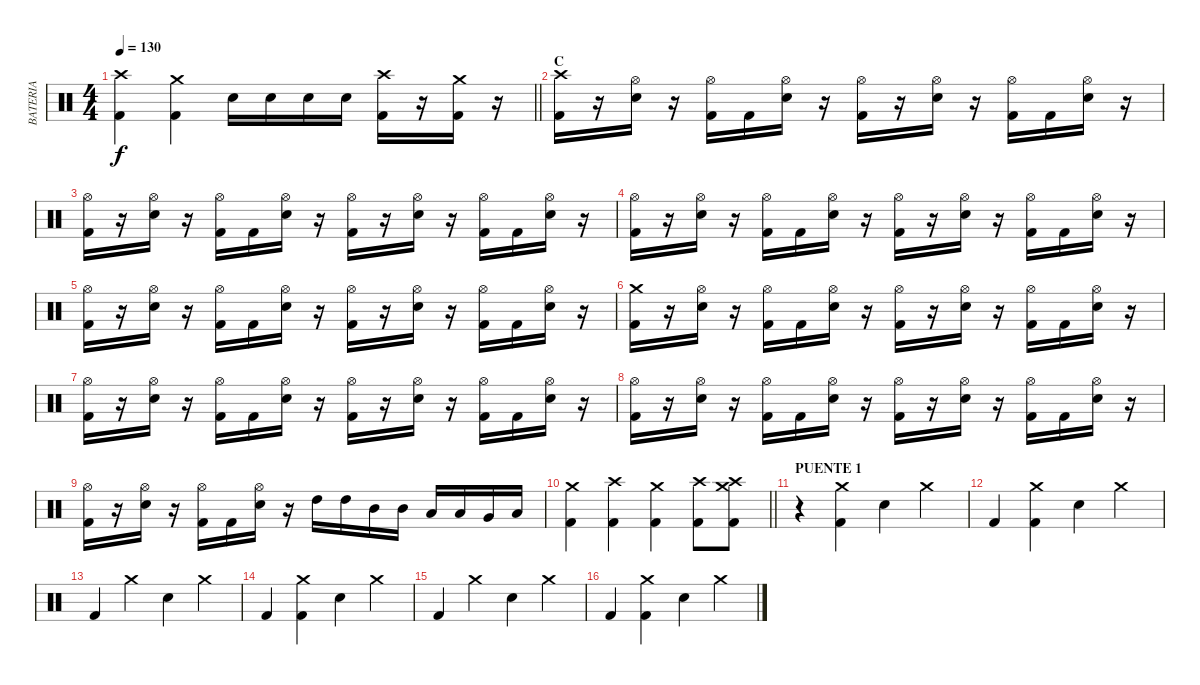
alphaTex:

\track ("BATERIA" "BATERIA") {instrument percussion}
\staff {score}
\articulation defaults
\ts (4 4)
\tempo 130
\clef neutral
\barLineRight lightlight
\ks c
("Kick (hit) 2" "Crash high (hit)").4{dy f} ("Kick (hit) 2" "Crash medium (hit)").4 "Electric Snare (hit)".16 "Electric Snare (hit)".16 "Electric Snare (hit)".16 "Electric Snare (hit)".16 ("Kick (hit) 2" "Crash high (hit)").16 r.16 ("Kick (hit) 2" "Crash medium (hit)").16 r.16 |
\section ("" "C")
("Kick (hit) 2" "Crash high (hit)").16 r.16 ("Electric Snare (hit)" "Hi-Hat (open)").16 r.16 ("Kick (hit) 2" "Hi-Hat (open)").16 "Kick (hit) 2".16 ("Electric Snare (hit)" "Hi-Hat (open)").16 r.16 ("Kick (hit) 2" "Hi-Hat (open)").16 r.16 ("Electric Snare (hit)" "Hi-Hat (open)").16 r.16 ("Kick (hit) 2" "Hi-Hat (open)").16 "Kick (hit) 2".16 ("Electric Snare (hit)" "Hi-Hat (open)").16 r.16 |
("Kick (hit) 2" "Hi-Hat (open)").16 r.16 ("Electric Snare (hit)" "Hi-Hat (open)").16 r.16 ("Kick (hit) 2" "Hi-Hat (open)").16 "Kick (hit) 2".16 ("Electric Snare (hit)" "Hi-Hat (open)").16 r.16 ("Kick (hit) 2" "Hi-Hat (open)").16 r.16 ("Electric Snare (hit)" "Hi-Hat (open)").16 r.16 ("Kick (hit) 2" "Hi-Hat (open)").16 "Kick (hit) 2".16 ("Electric Snare (hit)" "Hi-Hat (open)").16 r.16 |
("Kick (hit) 2" "Hi-Hat (open)").16 r.16 ("Electric Snare (hit)" "Hi-Hat (open)").16 r.16 ("Kick (hit) 2" "Hi-Hat (open)").16 "Kick (hit) 2".16 ("Electric Snare (hit)" "Hi-Hat (open)").16 r.16 ("Kick (hit) 2" "Hi-Hat (open)").16 r.16 ("Electric Snare (hit)" "Hi-Hat (open)").16 r.16 ("Kick (hit) 2" "Hi-Hat (open)").16 "Kick (hit) 2".16 ("Electric Snare (hit)" "Hi-Hat (open)").16 r.16 |
("Kick (hit) 2" "Hi-Hat (open)").16 r.16 ("Electric Snare (hit)" "Hi-Hat (open)").16 r.16 ("Kick (hit) 2" "Hi-Hat (open)").16 "Kick (hit) 2".16 ("Electric Snare (hit)" "Hi-Hat (open)").16 r.16 ("Kick (hit) 2" "Hi-Hat (open)").16 r.16 ("Electric Snare (hit)" "Hi-Hat (open)").16 r.16 ("Kick (hit) 2" "Hi-Hat (open)").16 "Kick (hit) 2".16 ("Electric Snare (hit)" "Hi-Hat (open)").16 r.16 |
("Kick (hit) 2" "Crash medium (hit)").16 r.16 ("Electric Snare (hit)" "Hi-Hat (open)").16 r.16 ("Kick (hit) 2" "Hi-Hat (open)").16 "Kick (hit) 2".16 ("Electric Snare (hit)" "Hi-Hat (open)").16 r.16 ("Kick (hit) 2" "Hi-Hat (open)").16 r.16 ("Electric Snare (hit)" "Hi-Hat (open)").16 r.16 ("Kick (hit) 2" "Hi-Hat (open)").16 "Kick (hit) 2".16 ("Electric Snare (hit)" "Hi-Hat (open)").16 r.16 |
("Kick (hit) 2" "Hi-Hat (open)").16 r.16 ("Electric Snare (hit)" "Hi-Hat (open)").16 r.16 ("Kick (hit) 2" "Hi-Hat (open)").16 "Kick (hit) 2".16 ("Electric Snare (hit)" "Hi-Hat (open)").16 r.16 ("Kick (hit) 2" "Hi-Hat (open)").16 r.16 ("Electric Snare (hit)" "Hi-Hat (open)").16 r.16 ("Kick (hit) 2" "Hi-Hat (open)").16 "Kick (hit) 2".16 ("Electric Snare (hit)" "Hi-Hat (open)").16 r.16 |
("Kick (hit) 2" "Hi-Hat (open)").16 r.16 ("Electric Snare (hit)" "Hi-Hat (open)").16 r.16 ("Kick (hit) 2" "Hi-Hat (open)").16 "Kick (hit) 2".16 ("Electric Snare (hit)" "Hi-Hat (open)").16 r.16 ("Kick (hit) 2" "Hi-Hat (open)").16 r.16 ("Electric Snare (hit)" "Hi-Hat (open)").16 r.16 ("Kick (hit) 2" "Hi-Hat (open)").16 "Kick (hit) 2".16 ("Electric Snare (hit)" "Hi-Hat (open)").16 r.16 |
("Kick (hit) 2" "Hi-Hat (open)").16 r.16 ("Electric Snare (hit)" "Hi-Hat (open)").16 r.16 ("Kick (hit) 2" "Hi-Hat (open)").16 "Kick (hit) 2".16 ("Electric Snare (hit)" "Hi-Hat (open)").16 r.16 "High Tom (hit)".16 "High Tom (hit)".16 "Mid Tom (hit)".16 "Mid Tom (hit)".16 "Low Tom (hit)".16 "Low Tom (hit)".16 "Very Low Tom (hit)".16 "Low Floor Tom (hit)".16 |
\barLineRight lightlight
("Kick (hit) 2" "Crash medium (hit)").4 ("Kick (hit) 2" "Crash high (hit)").4 ("Kick (hit) 2" "Crash medium (hit)").4 ("Kick (hit) 2" "Crash high (hit)").8 ("Kick (hit) 2" "Crash medium (hit)" "Crash high (hit)").8 |
\section ("" "PUENTE 1")
r.4 ("Kick (hit) 2" "Crash medium (hit)").4 "Electric Snare (hit)".4 "Crash medium (hit)".4 |
"Kick (hit) 2".4 ("Kick (hit) 2" "Crash medium (hit)").4 "Electric Snare (hit)".4 "Crash medium (hit)".4 |
"Kick (hit) 2".4 "Crash medium (hit)".4 "Electric Snare (hit)".4 "Crash medium (hit)".4 |
"Kick (hit) 2".4 ("Kick (hit) 2" "Crash medium (hit)").4 "Electric Snare (hit)".4 "Crash medium (hit)".4 |
"Kick (hit) 2".4 "Crash medium (hit)".4 "Electric Snare (hit)".4 "Crash medium (hit)".4 |
"Kick (hit) 2".4 ("Kick (hit) 2" "Crash medium (hit)").4 "Electric Snare (hit)".4 "Crash medium (hit)".4
